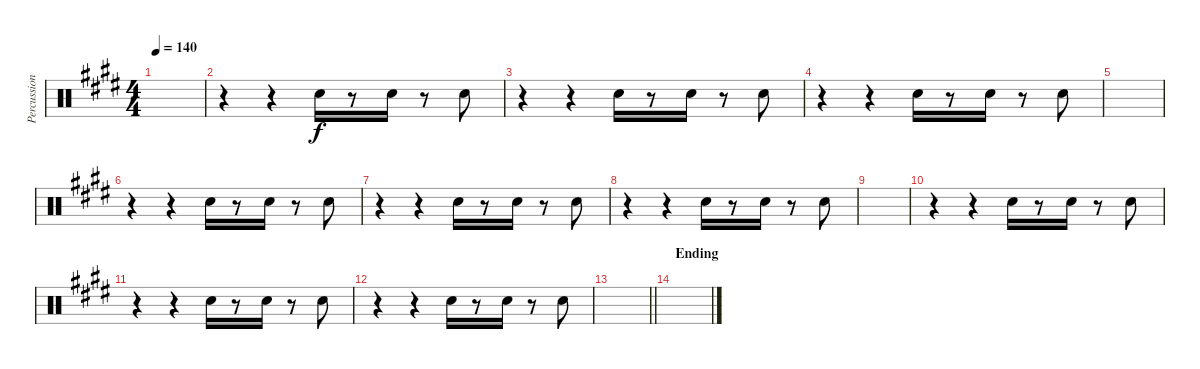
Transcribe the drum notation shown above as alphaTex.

\track ("Percussion" "Percussion") {instrument percussion}
\staff {score}
\articulation defaults
\ts (4 4)
\tempo 140
\clef neutral
\ks e
|
r.4 r.4 "Hand Clap (hit)".16 r.8 "Hand Clap (hit)".16 r.8 "Hand Clap (hit)".8 |
r.4 r.4 "Hand Clap (hit)".16 r.8 "Hand Clap (hit)".16 r.8 "Hand Clap (hit)".8 |
r.4 r.4 "Hand Clap (hit)".16 r.8 "Hand Clap (hit)".16 r.8 "Hand Clap (hit)".8 |
|
r.4 r.4 "Hand Clap (hit)".16 r.8 "Hand Clap (hit)".16 r.8 "Hand Clap (hit)".8 |
r.4 r.4 "Hand Clap (hit)".16 r.8 "Hand Clap (hit)".16 r.8 "Hand Clap (hit)".8 |
r.4 r.4 "Hand Clap (hit)".16 r.8 "Hand Clap (hit)".16 r.8 "Hand Clap (hit)".8 |
|
r.4 r.4 "Hand Clap (hit)".16 r.8 "Hand Clap (hit)".16 r.8 "Hand Clap (hit)".8 |
r.4 r.4 "Hand Clap (hit)".16 r.8 "Hand Clap (hit)".16 r.8 "Hand Clap (hit)".8 |
r.4 r.4 "Hand Clap (hit)".16 r.8 "Hand Clap (hit)".16 r.8 "Hand Clap (hit)".8 |
\barLineRight lightlight
|
\section ("" "Ending")
